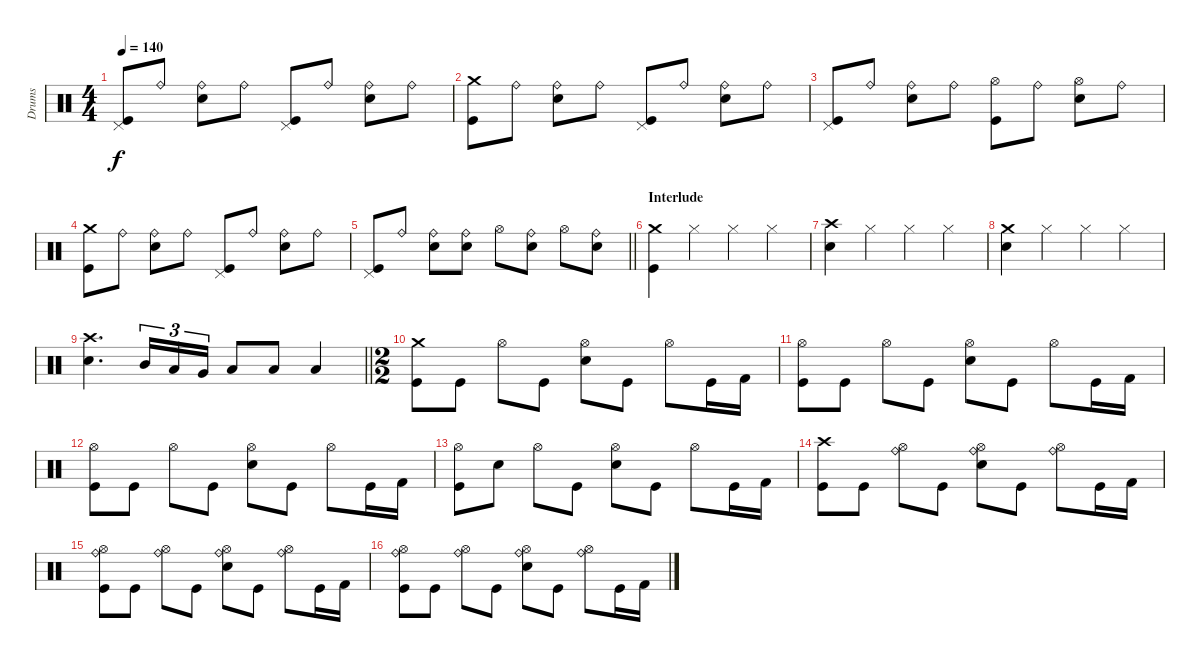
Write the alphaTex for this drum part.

\track ("Drums" "Drums") {instrument percussion}
\staff {score}
\articulation defaults
\ts (4 4)
\tempo 140
\clef neutral
\ks c
("Pedal Hi-Hat (hit)" "Kick (hit)").8{dy f} "Ride (bell)".8 ("Ride (bell)" "Snare (hit) 2").8 "Ride (bell)".8 ("Pedal Hi-Hat (hit)" "Kick (hit)").8 "Ride (bell)".8 ("Ride (bell)" "Snare (hit) 2").8 "Ride (bell)".8 |
("Crash medium (hit)" "Kick (hit)").8 "Ride (bell)".8 ("Ride (bell)" "Snare (hit) 2").8 "Ride (bell)".8 ("Pedal Hi-Hat (hit)" "Kick (hit)").8 "Ride (bell)".8 ("Ride (bell)" "Snare (hit) 2").8 "Ride (bell)".8 |
("Pedal Hi-Hat (hit)" "Kick (hit)").8 "Ride (bell)".8 ("Ride (bell)" "Snare (hit) 2").8 "Ride (bell)".8 ("Hi-Hat (open)" "Kick (hit)").8 "Ride (bell)".8 ("Hi-Hat (open)" "Snare (hit) 2").8 "Ride (bell)".8 |
("Crash medium (hit)" "Kick (hit)").8 "Ride (bell)".8 ("Ride (bell)" "Snare (hit) 2").8 "Ride (bell)".8 ("Pedal Hi-Hat (hit)" "Kick (hit)").8 "Ride (bell)".8 ("Ride (bell)" "Snare (hit) 2").8 "Ride (bell)".8 |
\barLineRight lightlight
("Pedal Hi-Hat (hit)" "Kick (hit)").8 "Ride (bell)".8 ("Ride (bell)" "Snare (hit) 2").8 ("Ride (bell)" "Snare (hit) 2").8 "Hi-Hat (open)".8 ("Ride (bell)" "Snare (hit) 2").8 "Hi-Hat (open)".8 ("Ride (bell)" "Snare (hit) 2").8 |
\section ("" "Interlude")
("Crash medium (hit)" "Kick (hit)").4 "Hi-Hat (closed)".4 "Hi-Hat (closed)".4 "Hi-Hat (closed)".4 |
("Crash high (hit)" "Snare (hit) 2").4 "Hi-Hat (closed)".4 "Hi-Hat (closed)".4 "Hi-Hat (closed)".4 |
("Crash medium (hit)" "Snare (hit) 2").4 "Hi-Hat (closed)".4 "Hi-Hat (closed)".4 "Hi-Hat (closed)".4 |
\barLineRight lightlight
("Crash high (hit)" "Snare (hit) 2").4{d} "Mid Tom (hit)".16{tu (3 2)} "Low Tom (hit)".16{tu (3 2)} "Very Low Tom (hit)".16{tu (3 2)} "Low Tom (hit)".8 "Low Tom (hit)".8 "Low Tom (hit)".4 |
\ts (2 2)
("Crash medium (hit)" "Kick (hit)").8 "Kick (hit)".8 "Hi-Hat (open)".8 "Kick (hit)".8 ("Hi-Hat (open)" "Snare (hit) 2").8 "Kick (hit)".8 "Hi-Hat (open)".8 "Kick (hit)".16 "Kick (hit) 2".16 |
("Hi-Hat (open)" "Kick (hit)").8 "Kick (hit)".8 "Hi-Hat (open)".8 "Kick (hit)".8 ("Hi-Hat (open)" "Snare (hit) 2").8 "Kick (hit)".8 "Hi-Hat (open)".8 "Kick (hit)".16 "Kick (hit) 2".16 |
("Hi-Hat (open)" "Kick (hit)").8 "Kick (hit)".8 "Hi-Hat (open)".8 "Kick (hit)".8 ("Hi-Hat (open)" "Snare (hit) 2").8 "Kick (hit)".8 "Hi-Hat (open)".8 "Kick (hit)".16 "Kick (hit) 2".16 |
("Hi-Hat (open)" "Kick (hit)").8 "Snare (hit) 2".8 "Hi-Hat (open)".8 "Kick (hit)".8 ("Hi-Hat (open)" "Snare (hit) 2").8 "Kick (hit)".8 "Hi-Hat (open)".8 "Kick (hit)".16 "Kick (hit) 2".16 |
("Crash high (hit)" "Kick (hit)").8 "Kick (hit)".8 ("Ride (bell)" "Hi-Hat (open)").8 "Kick (hit)".8 ("Ride (bell)" "Hi-Hat (open)" "Snare (hit) 2").8 "Kick (hit)".8 ("Ride (bell)" "Hi-Hat (open)").8 "Kick (hit)".16 "Kick (hit) 2".16 |
("Ride (bell)" "Hi-Hat (open)" "Kick (hit)").8 "Kick (hit)".8 ("Ride (bell)" "Hi-Hat (open)").8 "Kick (hit)".8 ("Ride (bell)" "Hi-Hat (open)" "Snare (hit) 2").8 "Kick (hit)".8 ("Ride (bell)" "Hi-Hat (open)").8 "Kick (hit)".16 "Kick (hit) 2".16 |
("Ride (bell)" "Hi-Hat (open)" "Kick (hit)").8 "Kick (hit)".8 ("Ride (bell)" "Hi-Hat (open)").8 "Kick (hit)".8 ("Ride (bell)" "Hi-Hat (open)" "Snare (hit) 2").8 "Kick (hit)".8 ("Ride (bell)" "Hi-Hat (open)").8 "Kick (hit)".16 "Kick (hit) 2".16
